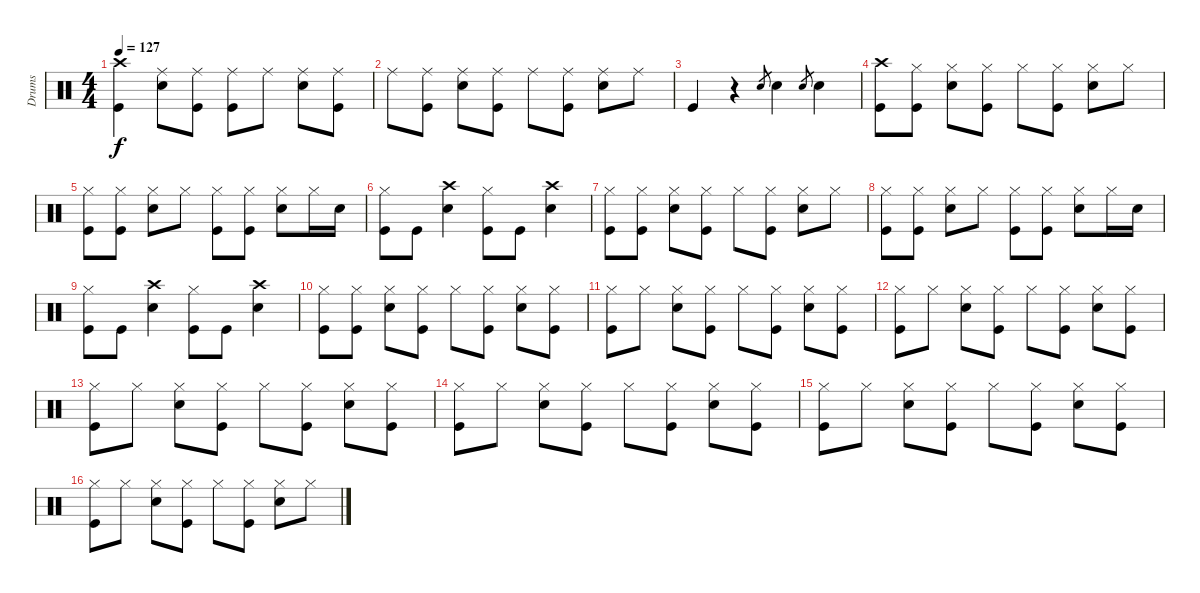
\track ("Drums" "Drums") {instrument percussion}
\staff {score}
\articulation defaults
\ts (4 4)
\tempo 127
\clef neutral
\ks c
("Crash high (hit)" "Kick (hit)").4{dy f} ("Ride (middle)" "Snare (hit) 2").8 ("Kick (hit)" "Ride (middle)").8 ("Ride (middle)" "Kick (hit)").8 "Ride (middle)".8 ("Snare (hit) 2" "Ride (middle)").8 ("Ride (middle)" "Kick (hit)").8 |
"Ride (middle)".8 ("Kick (hit)" "Ride (middle)").8 ("Ride (middle)" "Snare (hit) 2").8 ("Kick (hit)" "Ride (middle)").8 "Ride (middle)".8 ("Ride (middle)" "Kick (hit)").8 ("Snare (hit) 2" "Ride (middle)").8 "Ride (middle)".8 |
"Kick (hit)".4 r.4 "Snare (hit) 2".8{gr} "Snare (hit) 2".4 "Snare (hit) 2".8{gr} "Snare (hit) 2".4 |
("Crash high (hit)" "Kick (hit)").8 ("Hi-Hat (closed)" "Kick (hit)").8 ("Hi-Hat (closed)" "Snare (hit) 2").8 ("Hi-Hat (closed)" "Kick (hit)").8 "Hi-Hat (closed)".8 ("Hi-Hat (closed)" "Kick (hit)").8 ("Hi-Hat (closed)" "Snare (hit) 2").8 "Hi-Hat (closed)".8 |
("Hi-Hat (closed)" "Kick (hit)").8 ("Hi-Hat (closed)" "Kick (hit)").8 ("Hi-Hat (closed)" "Snare (hit) 2").8 "Hi-Hat (closed)".8 ("Hi-Hat (closed)" "Kick (hit)").8 ("Hi-Hat (closed)" "Kick (hit)").8 ("Hi-Hat (closed)" "Snare (hit) 2").8 "Hi-Hat (closed)".16 "Snare (hit) 2".16 |
("Kick (hit)" "Hi-Hat (closed)").8 "Kick (hit)".8 ("Crash high (hit)" "Snare (hit) 2").4 ("Kick (hit)" "Hi-Hat (closed)").8 "Kick (hit)".8 ("Crash high (hit)" "Snare (hit) 2").4 |
("Hi-Hat (closed)" "Kick (hit)").8 ("Hi-Hat (closed)" "Kick (hit)").8 ("Hi-Hat (closed)" "Snare (hit) 2").8 ("Hi-Hat (closed)" "Kick (hit)").8 "Hi-Hat (closed)".8 ("Hi-Hat (closed)" "Kick (hit)").8 ("Hi-Hat (closed)" "Snare (hit) 2").8 "Hi-Hat (closed)".8 |
("Hi-Hat (closed)" "Kick (hit)").8 ("Hi-Hat (closed)" "Kick (hit)").8 ("Hi-Hat (closed)" "Snare (hit) 2").8 "Hi-Hat (closed)".8 ("Hi-Hat (closed)" "Kick (hit)").8 ("Hi-Hat (closed)" "Kick (hit)").8 ("Hi-Hat (closed)" "Snare (hit) 2").8 "Hi-Hat (closed)".16 "Snare (hit) 2".16 |
("Kick (hit)" "Hi-Hat (closed)").8 "Kick (hit)".8 ("Crash high (hit)" "Snare (hit) 2").4 ("Kick (hit)" "Hi-Hat (closed)").8 "Kick (hit)".8 ("Crash high (hit)" "Snare (hit) 2").4 |
("Hi-Hat (closed)" "Kick (hit)").8 ("Hi-Hat (closed)" "Kick (hit)").8 ("Hi-Hat (closed)" "Snare (hit) 2").8 ("Hi-Hat (closed)" "Kick (hit)").8 "Hi-Hat (closed)".8 ("Hi-Hat (closed)" "Kick (hit)").8 ("Hi-Hat (closed)" "Snare (hit) 2").8 ("Hi-Hat (closed)" "Kick (hit)").8 |
("Kick (hit)" "Hi-Hat (closed)").8 "Hi-Hat (closed)".8 ("Snare (hit) 2" "Hi-Hat (closed)").8 ("Kick (hit)" "Hi-Hat (closed)").8 "Hi-Hat (closed)".8 ("Kick (hit)" "Hi-Hat (closed)").8 ("Snare (hit) 2" "Hi-Hat (closed)").8 ("Kick (hit)" "Hi-Hat (closed)").8 |
("Hi-Hat (closed)" "Kick (hit)").8 "Hi-Hat (closed)".8 ("Hi-Hat (closed)" "Snare (hit) 2").8 ("Hi-Hat (closed)" "Kick (hit)").8 "Hi-Hat (closed)".8 ("Hi-Hat (closed)" "Kick (hit)").8 ("Hi-Hat (closed)" "Snare (hit) 2").8 ("Hi-Hat (closed)" "Kick (hit)").8 |
("Kick (hit)" "Hi-Hat (closed)").8 "Hi-Hat (closed)".8 ("Snare (hit) 2" "Hi-Hat (closed)").8 ("Kick (hit)" "Hi-Hat (closed)").8 "Hi-Hat (closed)".8 ("Kick (hit)" "Hi-Hat (closed)").8 ("Snare (hit) 2" "Hi-Hat (closed)").8 ("Kick (hit)" "Hi-Hat (closed)").8 |
("Hi-Hat (closed)" "Kick (hit)").8 "Hi-Hat (closed)".8 ("Hi-Hat (closed)" "Snare (hit) 2").8 ("Hi-Hat (closed)" "Kick (hit)").8 "Hi-Hat (closed)".8 ("Hi-Hat (closed)" "Kick (hit)").8 ("Hi-Hat (closed)" "Snare (hit) 2").8 ("Hi-Hat (closed)" "Kick (hit)").8 |
("Kick (hit)" "Hi-Hat (closed)").8 "Hi-Hat (closed)".8 ("Snare (hit) 2" "Hi-Hat (closed)").8 ("Kick (hit)" "Hi-Hat (closed)").8 "Hi-Hat (closed)".8 ("Kick (hit)" "Hi-Hat (closed)").8 ("Snare (hit) 2" "Hi-Hat (closed)").8 ("Kick (hit)" "Hi-Hat (closed)").8 |
("Hi-Hat (closed)" "Kick (hit)").8 "Hi-Hat (closed)".8 ("Hi-Hat (closed)" "Snare (hit) 2").8 ("Hi-Hat (closed)" "Kick (hit)").8 "Hi-Hat (closed)".8 ("Hi-Hat (closed)" "Kick (hit)").8 ("Hi-Hat (closed)" "Snare (hit) 2").8 "Hi-Hat (closed)".8
